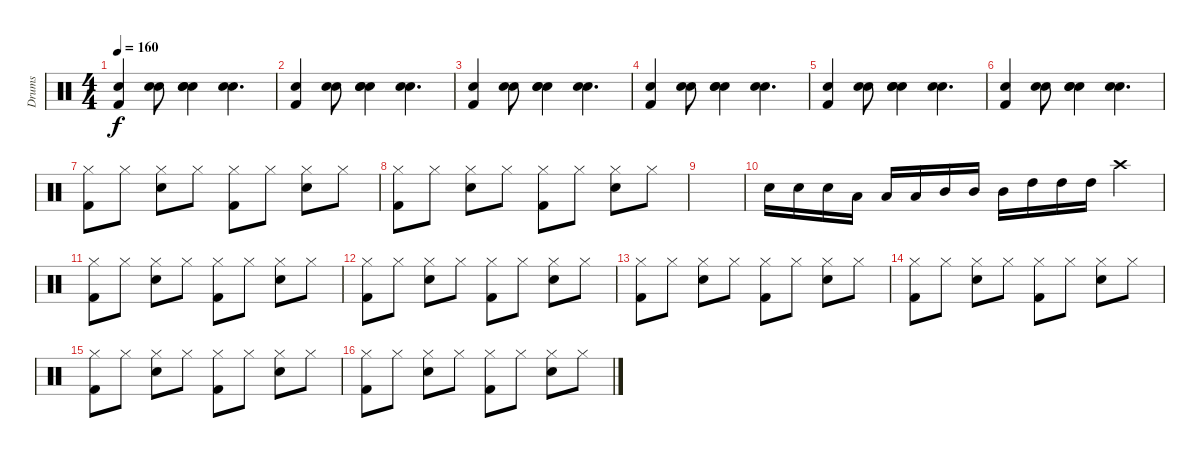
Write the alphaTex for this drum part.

\track ("Drums" "Drums") {instrument percussion}
\staff {score}
\articulation defaults
\ts (4 4)
\tempo 160
\clef neutral
\ks c
("Kick (hit) 2" "Electric Snare (hit)").4{dy f} ("Hand Clap (hit)" "Hand Clap (hit)").8 ("Hand Clap (hit)" "Hand Clap (hit)" "Electric Snare (hit)").4 ("Hand Clap (hit)" "Hand Clap (hit)").4{d} |
("Kick (hit) 2" "Electric Snare (hit)").4 ("Hand Clap (hit)" "Hand Clap (hit)").8 ("Hand Clap (hit)" "Hand Clap (hit)" "Electric Snare (hit)").4 ("Hand Clap (hit)" "Hand Clap (hit)").4{d} |
("Kick (hit) 2" "Electric Snare (hit)").4 ("Hand Clap (hit)" "Hand Clap (hit)").8 ("Hand Clap (hit)" "Hand Clap (hit)" "Electric Snare (hit)").4 ("Hand Clap (hit)" "Hand Clap (hit)").4{d} |
("Kick (hit) 2" "Electric Snare (hit)").4 ("Hand Clap (hit)" "Hand Clap (hit)").8 ("Hand Clap (hit)" "Hand Clap (hit)" "Electric Snare (hit)").4 ("Hand Clap (hit)" "Hand Clap (hit)").4{d} |
("Kick (hit) 2" "Electric Snare (hit)").4 ("Hand Clap (hit)" "Hand Clap (hit)").8 ("Hand Clap (hit)" "Hand Clap (hit)" "Electric Snare (hit)").4 ("Hand Clap (hit)" "Hand Clap (hit)").4{d} |
("Kick (hit) 2" "Electric Snare (hit)").4 ("Hand Clap (hit)" "Hand Clap (hit)").8 ("Hand Clap (hit)" "Hand Clap (hit)" "Electric Snare (hit)").4 ("Hand Clap (hit)" "Hand Clap (hit)").4{d} |
("Kick (hit) 2" "Hi-Hat (closed)").8 "Hi-Hat (closed)".8 ("Electric Snare (hit)" "Hi-Hat (closed)").8 "Hi-Hat (closed)".8 ("Kick (hit) 2" "Hi-Hat (closed)").8 "Hi-Hat (closed)".8 ("Electric Snare (hit)" "Hi-Hat (closed)").8 "Hi-Hat (closed)".8 |
("Kick (hit) 2" "Hi-Hat (closed)").8 "Hi-Hat (closed)".8 ("Electric Snare (hit)" "Hi-Hat (closed)").8 "Hi-Hat (closed)".8 ("Kick (hit) 2" "Hi-Hat (closed)").8 "Hi-Hat (closed)".8 ("Electric Snare (hit)" "Hi-Hat (closed)").8 "Hi-Hat (closed)".8 |
|
"Snare (hit) 2".16 "Snare (hit) 2".16 "Snare (hit) 2".16 "Low Tom (hit)".16 "Low Tom (hit)".16 "Low Tom (hit)".16 "Mid Tom (hit)".16 "Mid Tom (hit)".16 "Mid Tom (hit)".16 "High Tom (hit)".16 "High Tom (hit)".16 "High Tom (hit)".16 "Crash high (hit)".4 |
("Kick (hit) 2" "Hi-Hat (closed)").8 "Hi-Hat (closed)".8 ("Electric Snare (hit)" "Hi-Hat (closed)").8 "Hi-Hat (closed)".8 ("Kick (hit) 2" "Hi-Hat (closed)").8 "Hi-Hat (closed)".8 ("Electric Snare (hit)" "Hi-Hat (closed)").8 "Hi-Hat (closed)".8 |
("Kick (hit) 2" "Hi-Hat (closed)").8 "Hi-Hat (closed)".8 ("Electric Snare (hit)" "Hi-Hat (closed)").8 "Hi-Hat (closed)".8 ("Kick (hit) 2" "Hi-Hat (closed)").8 "Hi-Hat (closed)".8 ("Electric Snare (hit)" "Hi-Hat (closed)").8 "Hi-Hat (closed)".8 |
("Kick (hit) 2" "Hi-Hat (closed)").8 "Hi-Hat (closed)".8 ("Electric Snare (hit)" "Hi-Hat (closed)").8 "Hi-Hat (closed)".8 ("Kick (hit) 2" "Hi-Hat (closed)").8 "Hi-Hat (closed)".8 ("Electric Snare (hit)" "Hi-Hat (closed)").8 "Hi-Hat (closed)".8 |
("Kick (hit) 2" "Hi-Hat (closed)").8 "Hi-Hat (closed)".8 ("Electric Snare (hit)" "Hi-Hat (closed)").8 "Hi-Hat (closed)".8 ("Kick (hit) 2" "Hi-Hat (closed)").8 "Hi-Hat (closed)".8 ("Electric Snare (hit)" "Hi-Hat (closed)").8 "Hi-Hat (closed)".8 |
("Kick (hit) 2" "Hi-Hat (closed)").8 "Hi-Hat (closed)".8 ("Electric Snare (hit)" "Hi-Hat (closed)").8 "Hi-Hat (closed)".8 ("Kick (hit) 2" "Hi-Hat (closed)").8 "Hi-Hat (closed)".8 ("Electric Snare (hit)" "Hi-Hat (closed)").8 "Hi-Hat (closed)".8 |
("Kick (hit) 2" "Hi-Hat (closed)").8 "Hi-Hat (closed)".8 ("Electric Snare (hit)" "Hi-Hat (closed)").8 "Hi-Hat (closed)".8 ("Kick (hit) 2" "Hi-Hat (closed)").8 "Hi-Hat (closed)".8 ("Electric Snare (hit)" "Hi-Hat (closed)").8 "Hi-Hat (closed)".8
